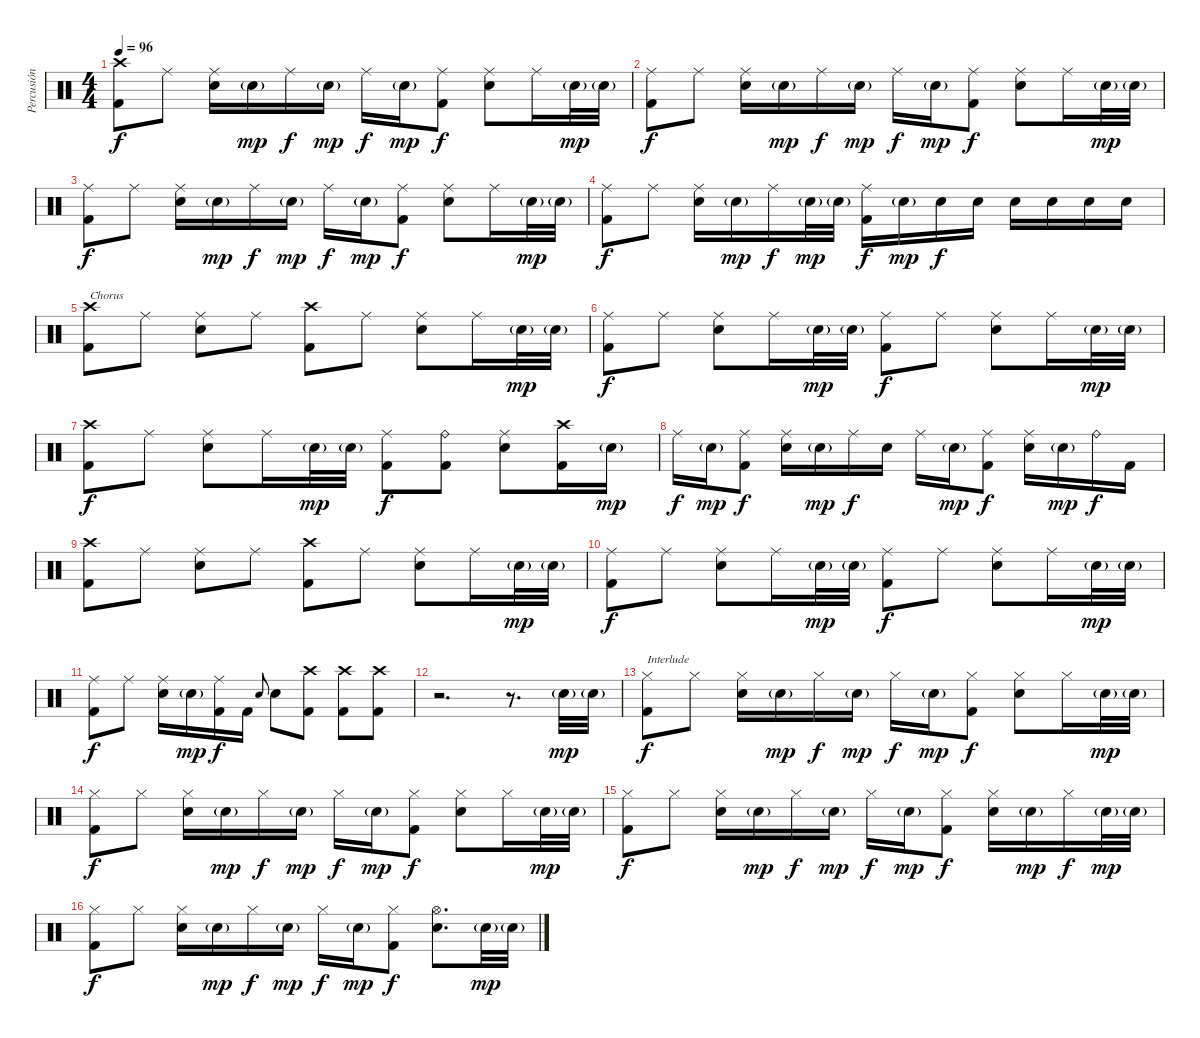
\track ("Percusión" "Percusión") {instrument percussion}
\staff {score}
\articulation defaults
\ts (4 4)
\tempo 96
\clef neutral
\ks c
("Crash high (hit)" "Kick (hit) 2").8{dy f} "Ride (middle)".8 ("Ride (middle)" "Snare (hit) 2").16 "Snare (hit) 2"{g}.16{dy mp} "Ride (middle)".16{dy f} "Snare (hit) 2"{g}.16{dy mp} "Ride (middle)".16{dy f} "Snare (hit) 2"{g}.16{dy mp} ("Ride (middle)" "Kick (hit) 2").8{dy f} ("Ride (middle)" "Snare (hit) 2").8 "Ride (middle)".16 "Snare (hit) 2"{g}.32{dy mp} "Snare (hit) 2"{g}.32 |
("Ride (middle)" "Kick (hit) 2").8{dy f} "Ride (middle)".8 ("Ride (middle)" "Snare (hit) 2").16 "Snare (hit) 2"{g}.16{dy mp} "Ride (middle)".16{dy f} "Snare (hit) 2"{g}.16{dy mp} "Ride (middle)".16{dy f} "Snare (hit) 2"{g}.16{dy mp} ("Ride (middle)" "Kick (hit) 2").8{dy f} ("Ride (middle)" "Snare (hit) 2").8 "Ride (middle)".16 "Snare (hit) 2"{g}.32{dy mp} "Snare (hit) 2"{g}.32 |
("Ride (middle)" "Kick (hit) 2").8{dy f} "Ride (middle)".8 ("Ride (middle)" "Snare (hit) 2").16 "Snare (hit) 2"{g}.16{dy mp} "Ride (middle)".16{dy f} "Snare (hit) 2"{g}.16{dy mp} "Ride (middle)".16{dy f} "Snare (hit) 2"{g}.16{dy mp} ("Ride (middle)" "Kick (hit) 2").8{dy f} ("Ride (middle)" "Snare (hit) 2").8 "Ride (middle)".16 "Snare (hit) 2"{g}.32{dy mp} "Snare (hit) 2"{g}.32 |
("Ride (middle)" "Kick (hit) 2").8{dy f} "Ride (middle)".8 ("Ride (middle)" "Snare (hit) 2").16 "Snare (hit) 2"{g}.16{dy mp} "Ride (middle)".16{dy f} "Snare (hit) 2"{g}.32{dy mp} "Snare (hit) 2"{g}.32 ("Ride (middle)" "Kick (hit) 2").16{dy f} "Snare (hit) 2"{g}.16{dy mp} "Snare (hit) 2".16{dy f} "Snare (hit) 2".16 "Snare (hit) 2".16 "Snare (hit) 2".16 "Snare (hit) 2".16 "Snare (hit) 2".16 |
("Crash high (hit)" "Kick (hit) 2").8{txt "Chorus"} "Ride (middle)".8 ("Ride (middle)" "Snare (hit) 2").8 "Ride (middle)".8 ("Crash high (hit)" "Kick (hit) 2").8 "Ride (middle)".8 ("Ride (middle)" "Snare (hit) 2").8 "Ride (middle)".16 "Snare (hit) 2"{g}.32{dy mp} "Snare (hit) 2"{g}.32 |
("Ride (middle)" "Kick (hit) 2").8{dy f} "Ride (middle)".8 ("Ride (middle)" "Snare (hit) 2").8 "Ride (middle)".16 "Snare (hit) 2"{g}.32{dy mp} "Snare (hit) 2"{g}.32 ("Ride (middle)" "Kick (hit) 2").8{dy f} "Ride (middle)".8 ("Ride (middle)" "Snare (hit) 2").8 "Ride (middle)".16 "Snare (hit) 2"{g}.32{dy mp} "Snare (hit) 2"{g}.32 |
("Crash high (hit)" "Kick (hit) 2").8{dy f} "Ride (middle)".8 ("Ride (middle)" "Snare (hit) 2").8 "Ride (middle)".16 "Snare (hit) 2"{g}.32{dy mp} "Snare (hit) 2"{g}.32 ("Ride (middle)" "Kick (hit) 2").8{dy f} ("Ride (bell)" "Kick (hit) 2").8 ("Ride (middle)" "Snare (hit) 2").8 ("Crash high (hit)" "Kick (hit) 2").16 "Snare (hit) 2"{g}.16{dy mp} |
"Ride (middle)".16{dy f} "Snare (hit) 2"{g}.16{dy mp} ("Ride (middle)" "Kick (hit) 2").8{dy f} ("Ride (middle)" "Snare (hit) 2").16 "Snare (hit) 2"{g}.16{dy mp} "Ride (middle)".16{dy f} "Snare (hit) 2".16 "Ride (middle)".16 "Snare (hit) 2"{g}.16{dy mp} ("Ride (middle)" "Kick (hit) 2").8{dy f} ("Ride (middle)" "Snare (hit) 2").16 "Snare (hit) 2"{g}.16{dy mp} "Ride (bell)".16{dy f} "Kick (hit) 2".16 |
("Crash high (hit)" "Kick (hit) 2").8 "Ride (middle)".8 ("Ride (middle)" "Snare (hit) 2").8 "Ride (middle)".8 ("Crash high (hit)" "Kick (hit) 2").8 "Ride (middle)".8 ("Ride (middle)" "Snare (hit) 2").8 "Ride (middle)".16 "Snare (hit) 2"{g}.32{dy mp} "Snare (hit) 2"{g}.32 |
("Ride (middle)" "Kick (hit) 2").8{dy f} "Ride (middle)".8 ("Ride (middle)" "Snare (hit) 2").8 "Ride (middle)".16 "Snare (hit) 2"{g}.32{dy mp} "Snare (hit) 2"{g}.32 ("Ride (middle)" "Kick (hit) 2").8{dy f} "Ride (middle)".8 ("Ride (middle)" "Snare (hit) 2").8 "Ride (middle)".16 "Snare (hit) 2"{g}.32{dy mp} "Snare (hit) 2"{g}.32 |
("Ride (middle)" "Kick (hit) 2").8{dy f} "Ride (middle)".8 ("Ride (middle)" "Snare (hit) 2").16 "Snare (hit) 2"{g}.16{dy mp} ("Ride (middle)" "Kick (hit) 2").16{dy f} "Kick (hit) 2".16 "Snare (hit) 2".8{gr onbeat} "Snare (hit) 2".8 ("Crash high (hit)" "Kick (hit) 2").8 ("Crash high (hit)" "Kick (hit) 2").8 ("Crash high (hit)" "Kick (hit) 2").8 |
r.2{d} r.8{d} "Snare (hit) 2"{g}.32{dy mp} "Snare (hit) 2"{g}.32 |
("Hi-Hat (closed)" "Kick (hit) 2").8{txt "Interlude" dy f} "Hi-Hat (closed)".8 ("Hi-Hat (closed)" "Snare (hit) 2").16 "Snare (hit) 2"{g}.16{dy mp} "Hi-Hat (closed)".16{dy f} "Snare (hit) 2"{g}.16{dy mp} "Hi-Hat (closed)".16{dy f} "Snare (hit) 2"{g}.16{dy mp} ("Hi-Hat (closed)" "Kick (hit) 2").8{dy f} ("Hi-Hat (closed)" "Snare (hit) 2").8 "Hi-Hat (closed)".16 "Snare (hit) 2"{g}.32{dy mp} "Snare (hit) 2"{g}.32 |
("Hi-Hat (closed)" "Kick (hit) 2").8{dy f} "Hi-Hat (closed)".8 ("Hi-Hat (closed)" "Snare (hit) 2").16 "Snare (hit) 2"{g}.16{dy mp} "Hi-Hat (closed)".16{dy f} "Snare (hit) 2"{g}.16{dy mp} "Hi-Hat (closed)".16{dy f} "Snare (hit) 2"{g}.16{dy mp} ("Hi-Hat (closed)" "Kick (hit) 2").8{dy f} ("Hi-Hat (closed)" "Snare (hit) 2").8 "Hi-Hat (closed)".16 "Snare (hit) 2"{g}.32{dy mp} "Snare (hit) 2"{g}.32 |
("Hi-Hat (closed)" "Kick (hit) 2").8{dy f} "Hi-Hat (closed)".8 ("Hi-Hat (closed)" "Snare (hit) 2").16 "Snare (hit) 2"{g}.16{dy mp} "Hi-Hat (closed)".16{dy f} "Snare (hit) 2"{g}.16{dy mp} "Hi-Hat (closed)".16{dy f} "Snare (hit) 2"{g}.16{dy mp} ("Hi-Hat (closed)" "Kick (hit) 2").8{dy f} ("Hi-Hat (closed)" "Snare (hit) 2").16 "Snare (hit) 2"{g}.16{dy mp} "Hi-Hat (closed)".16{dy f} "Snare (hit) 2"{g}.32{dy mp} "Snare (hit) 2"{g}.32 |
("Hi-Hat (closed)" "Kick (hit) 2").8{dy f} "Hi-Hat (closed)".8 ("Hi-Hat (closed)" "Snare (hit) 2").16 "Snare (hit) 2"{g}.16{dy mp} "Hi-Hat (closed)".16{dy f} "Snare (hit) 2"{g}.16{dy mp} "Hi-Hat (closed)".16{dy f} "Snare (hit) 2"{g}.16{dy mp} ("Hi-Hat (closed)" "Kick (hit) 2").8{dy f} ("Hi-Hat (open)" "Snare (hit) 2").8{d} "Snare (hit) 2"{g}.32{dy mp} "Snare (hit) 2"{g}.32
